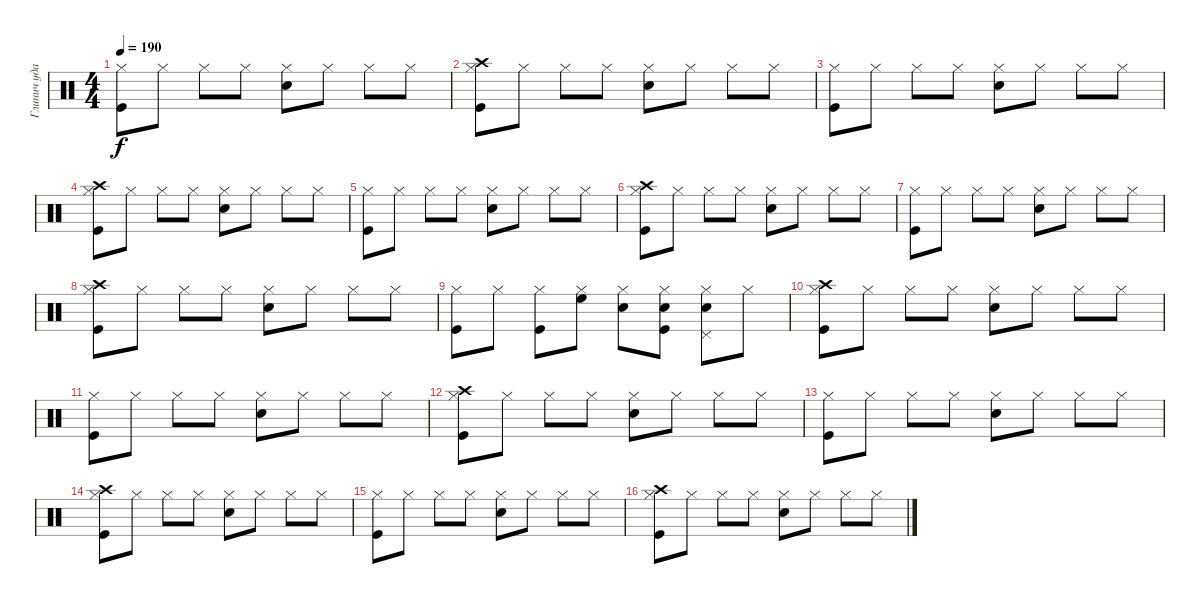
\track ("Глинич ударные" "Глинич уда") {instrument percussion}
\staff {score}
\articulation defaults
\ts (4 4)
\tempo 190
\clef neutral
\ks c
("Hi-Hat (closed)" "Kick (hit)").8{dy f} "Hi-Hat (closed)".8 "Hi-Hat (closed)".8 "Hi-Hat (closed)".8 ("Hi-Hat (closed)" "Snare (hit) 2").8 "Hi-Hat (closed)".8 "Hi-Hat (closed)".8 "Hi-Hat (closed)".8 |
("Hi-Hat (closed)" "Kick (hit)" "Crash high (hit)").8 "Hi-Hat (closed)".8 "Hi-Hat (closed)".8 "Hi-Hat (closed)".8 ("Hi-Hat (closed)" "Snare (hit) 2").8 "Hi-Hat (closed)".8 "Hi-Hat (closed)".8 "Hi-Hat (closed)".8 |
("Hi-Hat (closed)" "Kick (hit)").8 "Hi-Hat (closed)".8 "Hi-Hat (closed)".8 "Hi-Hat (closed)".8 ("Hi-Hat (closed)" "Snare (hit) 2").8 "Hi-Hat (closed)".8 "Hi-Hat (closed)".8 "Hi-Hat (closed)".8 |
("Hi-Hat (closed)" "Kick (hit)" "Crash high (hit)").8 "Hi-Hat (closed)".8 "Hi-Hat (closed)".8 "Hi-Hat (closed)".8 ("Hi-Hat (closed)" "Snare (hit) 2").8 "Hi-Hat (closed)".8 "Hi-Hat (closed)".8 "Hi-Hat (closed)".8 |
("Hi-Hat (closed)" "Kick (hit)").8 "Hi-Hat (closed)".8 "Hi-Hat (closed)".8 "Hi-Hat (closed)".8 ("Hi-Hat (closed)" "Snare (hit) 2").8 "Hi-Hat (closed)".8 "Hi-Hat (closed)".8 "Hi-Hat (closed)".8 |
("Hi-Hat (closed)" "Kick (hit)" "Crash high (hit)").8 "Hi-Hat (closed)".8 "Hi-Hat (closed)".8 "Hi-Hat (closed)".8 ("Hi-Hat (closed)" "Snare (hit) 2").8 "Hi-Hat (closed)".8 "Hi-Hat (closed)".8 "Hi-Hat (closed)".8 |
("Hi-Hat (closed)" "Kick (hit)").8 "Hi-Hat (closed)".8 "Hi-Hat (closed)".8 "Hi-Hat (closed)".8 ("Hi-Hat (closed)" "Snare (hit) 2").8 "Hi-Hat (closed)".8 "Hi-Hat (closed)".8 "Hi-Hat (closed)".8 |
("Hi-Hat (closed)" "Kick (hit)" "Crash high (hit)").8 "Hi-Hat (closed)".8 "Hi-Hat (closed)".8 "Hi-Hat (closed)".8 ("Hi-Hat (closed)" "Snare (hit) 2").8 "Hi-Hat (closed)".8 "Hi-Hat (closed)".8 "Hi-Hat (closed)".8 |
("Hi-Hat (closed)" "Kick (hit)").8 "Hi-Hat (closed)".8 ("Hi-Hat (closed)" "Kick (hit)").8 ("Hi-Hat (closed)" "High Floor Tom (hit)").8 ("Hi-Hat (closed)" "Snare (hit) 2").8 ("Hi-Hat (closed)" "Kick (hit)" "Snare (hit) 2").8 ("Hi-Hat (closed)" "Pedal Hi-Hat (hit)" "Snare (hit) 2").8 "Hi-Hat (closed)".8 |
("Hi-Hat (closed)" "Kick (hit)" "Crash high (hit)").8 "Hi-Hat (closed)".8 "Hi-Hat (closed)".8 "Hi-Hat (closed)".8 ("Hi-Hat (closed)" "Snare (hit) 2").8 "Hi-Hat (closed)".8 "Hi-Hat (closed)".8 "Hi-Hat (closed)".8 |
("Hi-Hat (closed)" "Kick (hit)").8 "Hi-Hat (closed)".8 "Hi-Hat (closed)".8 "Hi-Hat (closed)".8 ("Hi-Hat (closed)" "Snare (hit) 2").8 "Hi-Hat (closed)".8 "Hi-Hat (closed)".8 "Hi-Hat (closed)".8 |
("Hi-Hat (closed)" "Kick (hit)" "Crash high (hit)").8 "Hi-Hat (closed)".8 "Hi-Hat (closed)".8 "Hi-Hat (closed)".8 ("Hi-Hat (closed)" "Snare (hit) 2").8 "Hi-Hat (closed)".8 "Hi-Hat (closed)".8 "Hi-Hat (closed)".8 |
("Hi-Hat (closed)" "Kick (hit)").8 "Hi-Hat (closed)".8 "Hi-Hat (closed)".8 "Hi-Hat (closed)".8 ("Hi-Hat (closed)" "Snare (hit) 2").8 "Hi-Hat (closed)".8 "Hi-Hat (closed)".8 "Hi-Hat (closed)".8 |
("Hi-Hat (closed)" "Kick (hit)" "Crash high (hit)").8 "Hi-Hat (closed)".8 "Hi-Hat (closed)".8 "Hi-Hat (closed)".8 ("Hi-Hat (closed)" "Snare (hit) 2").8 "Hi-Hat (closed)".8 "Hi-Hat (closed)".8 "Hi-Hat (closed)".8 |
("Hi-Hat (closed)" "Kick (hit)").8 "Hi-Hat (closed)".8 "Hi-Hat (closed)".8 "Hi-Hat (closed)".8 ("Hi-Hat (closed)" "Snare (hit) 2").8 "Hi-Hat (closed)".8 "Hi-Hat (closed)".8 "Hi-Hat (closed)".8 |
("Hi-Hat (closed)" "Kick (hit)" "Crash high (hit)").8 "Hi-Hat (closed)".8 "Hi-Hat (closed)".8 "Hi-Hat (closed)".8 ("Hi-Hat (closed)" "Snare (hit) 2").8 "Hi-Hat (closed)".8 "Hi-Hat (closed)".8 "Hi-Hat (closed)".8
